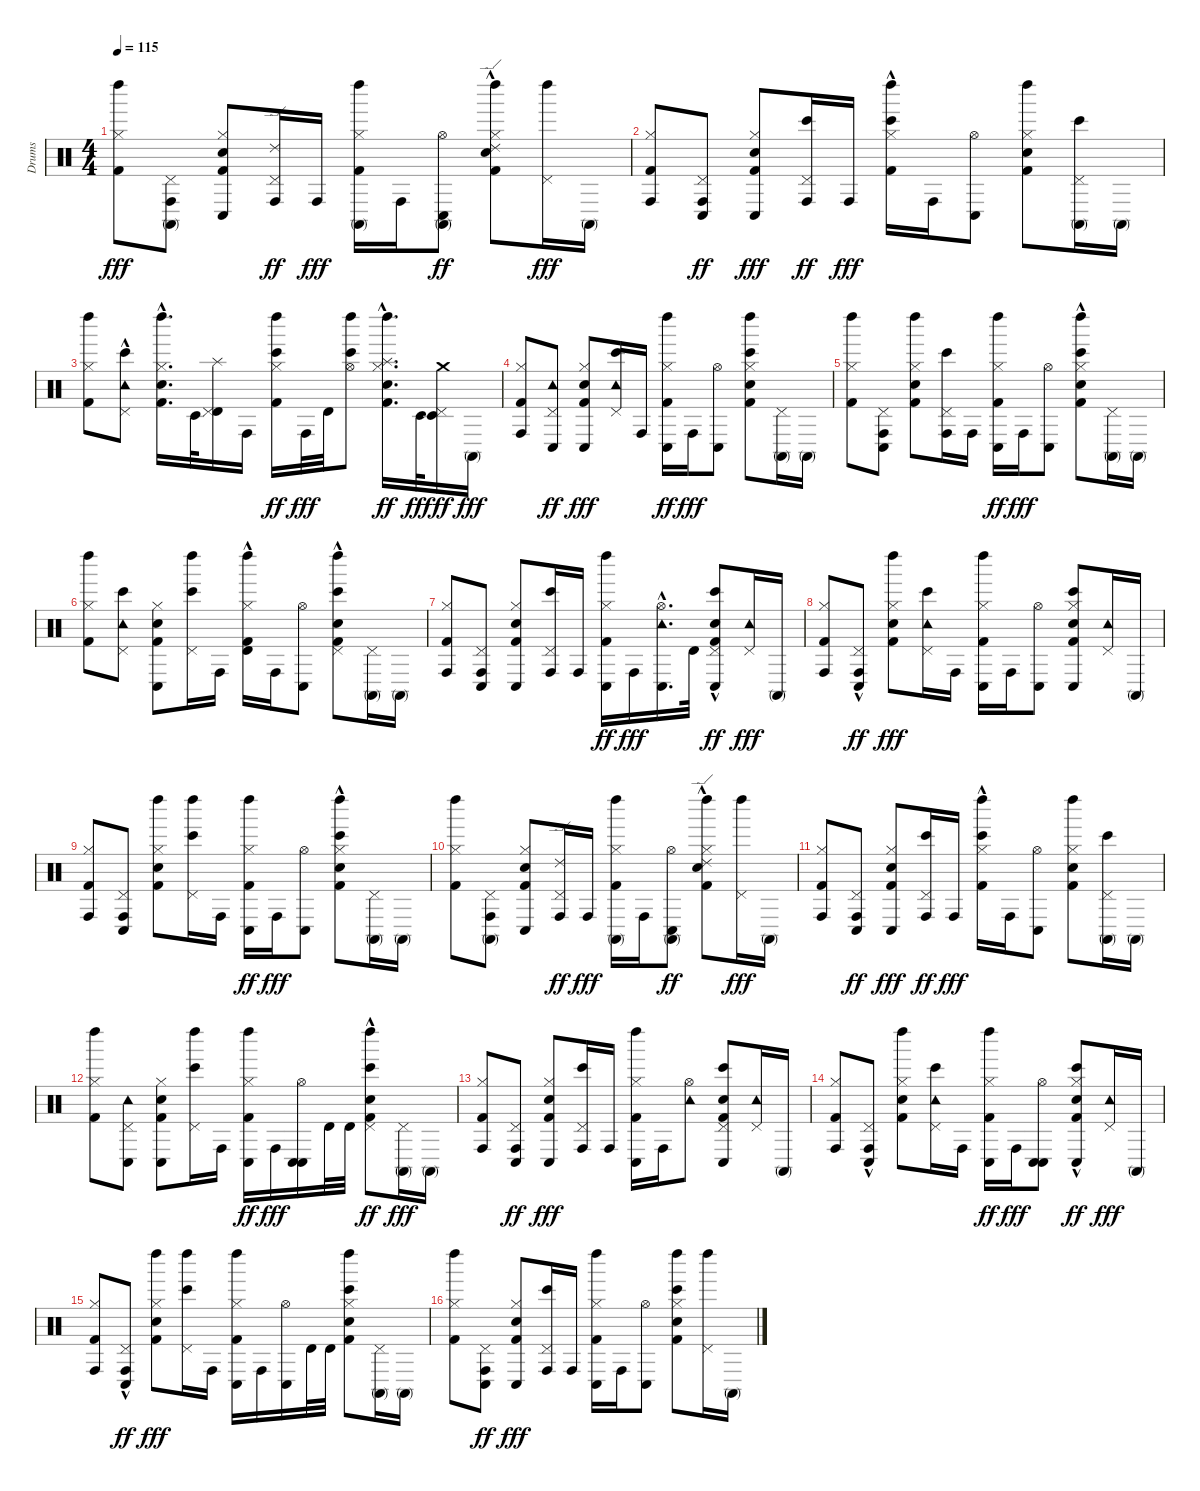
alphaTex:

\track ("Drums" "Drums") {instrument percussion}
\staff {score}
\articulation defaults
\ts (4 4)
\tempo 115
\clef neutral
\ks c
("Left Maraca (hit)" "Hi-Hat (closed)" "Kick (hit) 2").8{dy fff} ("Conga high (mute)" "Conga high (hit)" "Pedal Hi-Hat (hit)").8 ("Conga low (hit)" "Hi-Hat (closed)" "Snare (hit) 2" "Kick (hit) 2").8 ("Conga high (hit)" "Pedal Hi-Hat (hit)" "Ride (edge) 2").16{dy ff} "Conga high (hit)".16{dy fff} ("Conga high (mute)" "Left Maraca (hit)" "Hi-Hat (closed)" "Kick (hit) 2").16 "Conga high (hit)".16 ("Conga low (hit)" "Hi-Hat (open)" "Conga high (mute)").8{dy ff} ("Left Maraca (hit)" "Hi-Hat (closed)" "Snare (hit) 2" "Kick (hit) 2" "Ride (edge) 2"{hac}).8 ("Left Maraca (hit)" "Pedal Hi-Hat (hit)").16{dy fff} "Conga high (mute)".16 |
("Conga high (hit)" "Hi-Hat (closed)" "Kick (hit) 2").8 ("Conga low (hit)" "Conga high (hit)" "Pedal Hi-Hat (hit)").8{dy ff} ("Conga low (hit)" "Hi-Hat (closed)" "Snare (hit) 2" "Kick (hit) 2").8{dy fff} ("Bongo High (hit)" "Conga high (hit)" "Pedal Hi-Hat (hit)").16{dy ff} "Conga high (hit)".16{dy fff} ("Left Maraca (hit)" "Hi-Hat (closed)" "Kick (hit) 2" "Bongo High (hit)"{hac}).16 "Conga high (hit)".16 ("Conga low (hit)" "Hi-Hat (open)").8 ("Left Maraca (hit)" "Hi-Hat (closed)" "Snare (hit) 2" "Kick (hit) 2").8 ("Bongo High (hit)" "Conga high (mute)" "Pedal Hi-Hat (hit)").16 "Conga high (mute)".16 |
("Left Maraca (hit)" "Hi-Hat (closed)" "Kick (hit) 2").8 ("Pedal Hi-Hat (hit)" "Tambourine (hit)" "Bongo High (hit)"{hac}).8 ("Left Maraca (hit)"{hac} "Hi-Hat (closed)"{hac} "Snare (hit) 2"{hac} "Kick (hit) 2"{hac}).16{d} "Timbale low (hit)".32 ("Splash (hit)" "Timbale high (hit)" "Pedal Hi-Hat (hit)").16 "Conga high (hit)".16 ("Left Maraca (hit)" "Hi-Hat (closed)" "Kick (hit) 2" "Bongo High (hit)").16{dy ff} "Conga high (hit)".32{dy fff} "Timbale high (hit)".32 ("Bongo High (hit)" "Left Maraca (hit)" "Hi-Hat (open)").8 ("Left Maraca (hit)"{hac} "Hi-Hat (closed)"{hac} "Snare (hit) 2"{hac} "Kick (hit) 2"{hac} "Splash (hit)").16{d dy ff} "Timbale low (hit)".32{dy fff} ("Timbale low (hit)" "Pedal Hi-Hat (hit)" "Crash medium (hit)").16{dy ff} "Conga high (mute)".16{dy fff} |
("Conga high (hit)" "Hi-Hat (closed)" "Kick (hit) 2").8 ("Pedal Hi-Hat (hit)" "Tambourine (hit)" "Conga low (hit)").8{dy ff} ("Conga low (hit)" "Hi-Hat (closed)" "Snare (hit) 2" "Kick (hit) 2").8{dy fff} ("Bongo High (hit)" "Pedal Hi-Hat (hit)" "Tambourine (hit)").16 "Conga high (hit)".16 ("Left Maraca (hit)" "Hi-Hat (closed)" "Kick (hit) 2" "Conga low (hit)").16{dy ff} "Conga high (hit)".16{dy fff} ("Conga low (hit)" "Hi-Hat (open)").8 ("Bongo High (hit)" "Left Maraca (hit)" "Hi-Hat (closed)" "Snare (hit) 2" "Kick (hit) 2").8 ("Conga high (mute)" "Pedal Hi-Hat (hit)").16 "Conga high (mute)".16 |
("Left Maraca (hit)" "Hi-Hat (closed)" "Kick (hit) 2").8 ("Conga low (hit)" "Conga high (hit)" "Pedal Hi-Hat (hit)").8 ("Left Maraca (hit)" "Hi-Hat (closed)" "Snare (hit) 2" "Kick (hit) 2").8 ("Bongo High (hit)" "Conga high (hit)" "Pedal Hi-Hat (hit)").16 "Conga high (hit)".16 ("Left Maraca (hit)" "Hi-Hat (closed)" "Kick (hit) 2" "Conga low (hit)").16{dy ff} "Conga high (hit)".16{dy fff} ("Conga low (hit)" "Hi-Hat (open)").8 ("Left Maraca (hit)" "Hi-Hat (closed)" "Snare (hit) 2" "Kick (hit) 2" "Bongo High (hit)"{hac}).8 ("Conga high (mute)" "Pedal Hi-Hat (hit)").16 "Conga high (mute)".16 |
("Left Maraca (hit)" "Hi-Hat (closed)" "Kick (hit) 2").8 ("Pedal Hi-Hat (hit)" "Tambourine (hit)" "Bongo High (hit)").8 ("Conga low (hit)" "Hi-Hat (closed)" "Snare (hit) 2" "Kick (hit) 2").8 ("Left Maraca (hit)" "Pedal Hi-Hat (hit)" "Bongo High (hit)").16 "Conga high (hit)".16 ("Left Maraca (hit)" "Hi-Hat (closed)" "Kick (hit) 2" "Timbale high (hit)"{hac}).16 "Conga high (hit)".16 ("Conga low (hit)" "Hi-Hat (open)").8 ("Left Maraca (hit)" "Pedal Hi-Hat (hit)" "Snare (hit) 2" "Kick (hit) 2" "Bongo High (hit)"{hac}).8 ("Conga high (mute)" "Pedal Hi-Hat (hit)").16 "Conga high (mute)".16 |
("Conga high (hit)" "Hi-Hat (closed)" "Kick (hit) 2").8 ("Conga high (hit)" "Pedal Hi-Hat (hit)" "Conga low (hit)").8 ("Conga low (hit)" "Hi-Hat (closed)" "Snare (hit) 2" "Kick (hit) 2").8 ("Bongo High (hit)" "Conga high (hit)" "Pedal Hi-Hat (hit)").16 "Conga high (hit)".16 ("Left Maraca (hit)" "Hi-Hat (closed)" "Kick (hit) 2" "Conga low (hit)").16{dy ff} "Conga high (hit)".16{dy fff} ("Conga low (hit)" "Hi-Hat (open)"{hac} "Tambourine (hit)"{hac}).16{d} "Timbale high (hit)".32 ("Conga low (hit)" "Pedal Hi-Hat (hit)" "Snare (hit) 2" "Kick (hit) 2" "Bongo High (hit)"{hac}).8{dy ff} ("Pedal Hi-Hat (hit)" "Tambourine (hit)").16{dy fff} "Conga high (mute)".16 |
("Conga high (hit)" "Hi-Hat (closed)" "Kick (hit) 2").8 ("Conga high (hit)" "Pedal Hi-Hat (hit)" "Conga low (hit)"{hac}).8{dy ff} ("Left Maraca (hit)" "Hi-Hat (closed)" "Snare (hit) 2" "Kick (hit) 2").8{dy fff} ("Bongo High (hit)" "Pedal Hi-Hat (hit)" "Tambourine (hit)").16 "Conga high (hit)".16 ("Conga low (hit)" "Left Maraca (hit)" "Hi-Hat (closed)" "Kick (hit) 2").16 "Conga high (hit)".16 ("Conga low (hit)" "Hi-Hat (open)").8 ("Bongo High (hit)" "Conga low (hit)" "Hi-Hat (closed)" "Snare (hit) 2" "Kick (hit) 2").8 ("Pedal Hi-Hat (hit)" "Tambourine (hit)").16 "Conga high (mute)".16 |
("Conga high (hit)" "Hi-Hat (closed)" "Kick (hit) 2").8 ("Conga low (hit)" "Conga high (hit)" "Pedal Hi-Hat (hit)").8 ("Left Maraca (hit)" "Hi-Hat (closed)" "Snare (hit) 2" "Kick (hit) 2").8 ("Bongo High (hit)" "Left Maraca (hit)" "Pedal Hi-Hat (hit)").16 "Conga high (hit)".16 ("Left Maraca (hit)" "Hi-Hat (closed)" "Kick (hit) 2" "Conga low (hit)").16{dy ff} "Conga high (hit)".16{dy fff} ("Conga low (hit)" "Hi-Hat (open)").8 ("Left Maraca (hit)" "Hi-Hat (closed)" "Snare (hit) 2" "Kick (hit) 2" "Bongo High (hit)"{hac}).8 ("Conga high (mute)" "Pedal Hi-Hat (hit)").16 "Conga high (mute)".16 |
("Left Maraca (hit)" "Hi-Hat (closed)" "Kick (hit) 2").8 ("Conga high (mute)" "Conga high (hit)" "Pedal Hi-Hat (hit)").8 ("Conga low (hit)" "Hi-Hat (closed)" "Snare (hit) 2" "Kick (hit) 2").8 ("Conga high (hit)" "Pedal Hi-Hat (hit)" "Ride (edge) 2").16{dy ff} "Conga high (hit)".16{dy fff} ("Conga high (mute)" "Left Maraca (hit)" "Hi-Hat (closed)" "Kick (hit) 2").16 "Conga high (hit)".16 ("Conga low (hit)" "Hi-Hat (open)" "Conga high (mute)").8{dy ff} ("Left Maraca (hit)" "Hi-Hat (closed)" "Snare (hit) 2" "Kick (hit) 2" "Ride (edge) 2"{hac}).8 ("Left Maraca (hit)" "Pedal Hi-Hat (hit)").16{dy fff} "Conga high (mute)".16 |
("Conga high (hit)" "Hi-Hat (closed)" "Kick (hit) 2").8 ("Conga low (hit)" "Conga high (hit)" "Pedal Hi-Hat (hit)").8{dy ff} ("Conga low (hit)" "Hi-Hat (closed)" "Snare (hit) 2" "Kick (hit) 2").8{dy fff} ("Bongo High (hit)" "Conga high (hit)" "Pedal Hi-Hat (hit)").16{dy ff} "Conga high (hit)".16{dy fff} ("Left Maraca (hit)" "Hi-Hat (closed)" "Kick (hit) 2" "Bongo High (hit)"{hac}).16 "Conga high (hit)".16 ("Conga low (hit)" "Hi-Hat (open)").8 ("Left Maraca (hit)" "Hi-Hat (closed)" "Snare (hit) 2" "Kick (hit) 2").8 ("Bongo High (hit)" "Conga high (mute)" "Pedal Hi-Hat (hit)").16 "Conga high (mute)".16 |
("Left Maraca (hit)" "Hi-Hat (closed)" "Kick (hit) 2").8 ("Pedal Hi-Hat (hit)" "Tambourine (hit)" "Conga low (hit)").8 ("Conga low (hit)" "Hi-Hat (closed)" "Snare (hit) 2" "Kick (hit) 2").8 ("Bongo High (hit)" "Left Maraca (hit)" "Pedal Hi-Hat (hit)").16 "Conga high (hit)".16 ("Left Maraca (hit)" "Hi-Hat (closed)" "Kick (hit) 2" "Conga low (hit)").16{dy ff} "Conga high (hit)".16{dy fff} ("Conga low (hit)" "Conga low (hit)" "Hi-Hat (open)").16 "Timbale high (hit)".32 "Timbale high (hit)".32 ("Left Maraca (hit)" "Pedal Hi-Hat (hit)" "Snare (hit) 2" "Kick (hit) 2" "Bongo High (hit)"{hac}).8{dy ff} ("Conga high (mute)" "Pedal Hi-Hat (hit)").16{dy fff} "Conga high (mute)".16 |
("Conga high (hit)" "Hi-Hat (closed)" "Kick (hit) 2").8 ("Conga high (hit)" "Pedal Hi-Hat (hit)" "Conga low (hit)").8{dy ff} ("Conga low (hit)" "Hi-Hat (closed)" "Snare (hit) 2" "Kick (hit) 2").8{dy fff} ("Bongo High (hit)" "Conga high (hit)" "Pedal Hi-Hat (hit)").16 "Conga high (hit)".16 ("Conga low (hit)" "Left Maraca (hit)" "Hi-Hat (closed)" "Kick (hit) 2").16 "Conga high (hit)".16 ("Hi-Hat (open)" "Tambourine (hit)").8 ("Bongo High (hit)" "Conga low (hit)" "Pedal Hi-Hat (hit)" "Snare (hit) 2" "Kick (hit) 2").8 ("Pedal Hi-Hat (hit)" "Tambourine (hit)").16 "Conga high (mute)".16 |
("Conga high (hit)" "Hi-Hat (closed)" "Kick (hit) 2").8 ("Conga high (hit)" "Pedal Hi-Hat (hit)" "Conga low (hit)"{hac}).8 ("Left Maraca (hit)" "Hi-Hat (closed)" "Snare (hit) 2" "Kick (hit) 2").8 ("Bongo High (hit)" "Pedal Hi-Hat (hit)" "Tambourine (hit)").16 "Conga high (hit)".16 ("Left Maraca (hit)" "Hi-Hat (closed)" "Kick (hit) 2" "Conga low (hit)").16{dy ff} "Conga high (hit)".16{dy fff} ("Conga low (hit)" "Conga low (hit)" "Hi-Hat (open)").8 ("Conga low (hit)" "Hi-Hat (closed)" "Snare (hit) 2" "Kick (hit) 2" "Bongo High (hit)"{hac}).8{dy ff} ("Pedal Hi-Hat (hit)" "Tambourine (hit)").16{dy fff} "Conga high (mute)".16 |
("Conga high (hit)" "Hi-Hat (closed)" "Kick (hit) 2").8 ("Conga high (hit)" "Pedal Hi-Hat (hit)" "Conga low (hit)"{hac}).8{dy ff} ("Left Maraca (hit)" "Hi-Hat (closed)" "Snare (hit) 2" "Kick (hit) 2").8{dy fff} ("Bongo High (hit)" "Left Maraca (hit)" "Pedal Hi-Hat (hit)").16 "Conga high (hit)".16 ("Conga low (hit)" "Left Maraca (hit)" "Hi-Hat (closed)" "Kick (hit) 2").16 "Conga high (hit)".16 ("Conga low (hit)" "Hi-Hat (open)").16 "Timbale high (hit)".32 "Timbale high (hit)".32 ("Bongo High (hit)" "Left Maraca (hit)" "Hi-Hat (closed)" "Snare (hit) 2" "Kick (hit) 2").8 ("Conga high (mute)" "Pedal Hi-Hat (hit)").16 "Conga high (mute)".16 |
("Left Maraca (hit)" "Hi-Hat (closed)" "Kick (hit) 2").8 ("Conga high (hit)" "Pedal Hi-Hat (hit)" "Conga low (hit)").8{dy ff} ("Conga low (hit)" "Hi-Hat (closed)" "Snare (hit) 2" "Kick (hit) 2").8{dy fff} ("Bongo High (hit)" "Conga high (hit)" "Pedal Hi-Hat (hit)").16 "Conga high (hit)".16 ("Conga low (hit)" "Left Maraca (hit)" "Hi-Hat (closed)" "Kick (hit) 2").16 "Conga high (hit)".16 ("Conga low (hit)" "Hi-Hat (open)").8 ("Bongo High (hit)" "Left Maraca (hit)" "Hi-Hat (closed)" "Snare (hit) 2" "Kick (hit) 2").8 ("Left Maraca (hit)" "Pedal Hi-Hat (hit)").16 "Conga high (mute)".16
